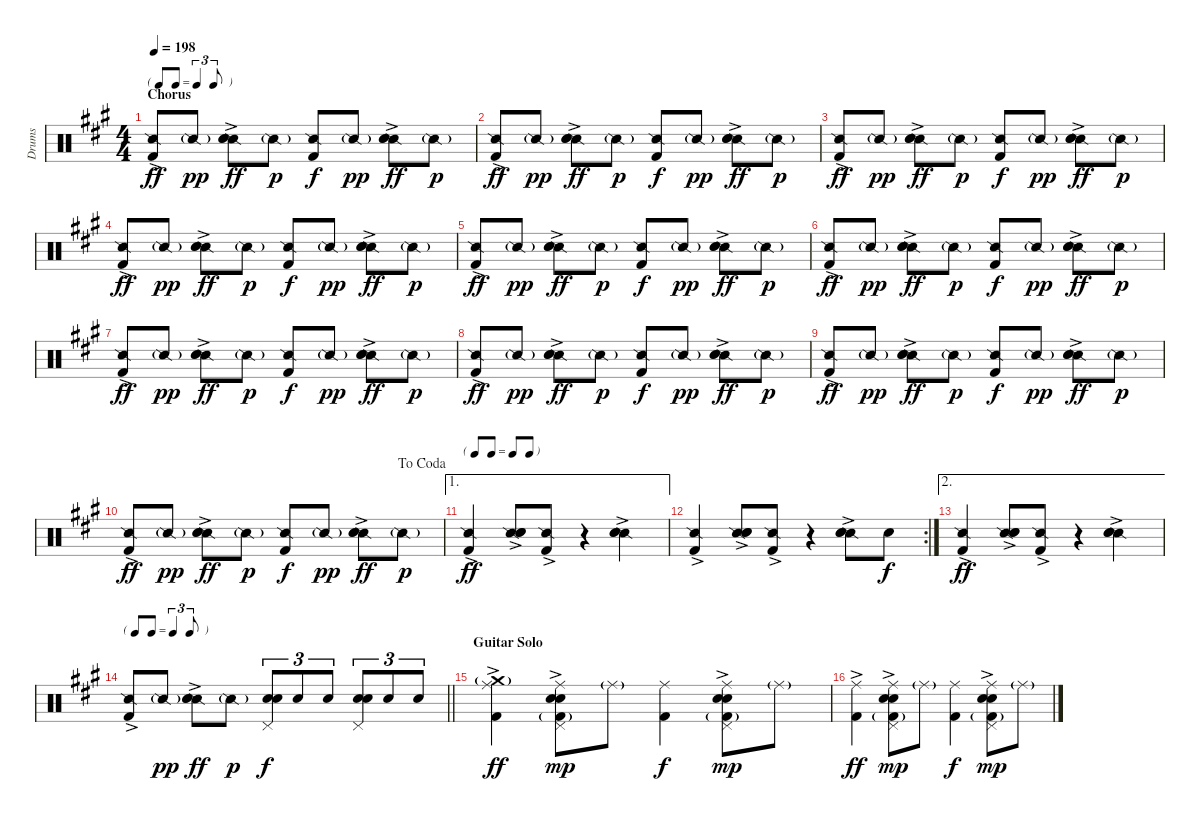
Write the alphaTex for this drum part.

\track ("Drums" "Drums") {instrument percussion}
\staff {score}
\articulation defaults
\ts (4 4)
\tf triplet8th
\section ("" "Chorus")
\tempo 198
\clef neutral
\ks a
("Snare (side stick) 2" "Kick (hit) 2"{ac}).8{dy ff} "Snare (side stick) 2"{g}.8{dy pp} ("Snare (side stick) 2" "Electric Snare (hit)"{ac} "Snare (hit) 2").8{dy ff} "Snare (side stick) 2"{g}.8{dy p} ("Snare (side stick) 2" "Kick (hit) 2").8{dy f} "Snare (side stick) 2"{g}.8{dy pp} ("Snare (side stick) 2" "Electric Snare (hit)"{ac} "Snare (hit) 2").8{dy ff} "Snare (side stick) 2"{g}.8{dy p} |
("Snare (side stick) 2" "Kick (hit) 2"{ac}).8{dy ff} "Snare (side stick) 2"{g}.8{dy pp} ("Snare (side stick) 2" "Electric Snare (hit)"{ac} "Snare (hit) 2").8{dy ff} "Snare (side stick) 2"{g}.8{dy p} ("Snare (side stick) 2" "Kick (hit) 2").8{dy f} "Snare (side stick) 2"{g}.8{dy pp} ("Snare (side stick) 2" "Electric Snare (hit)"{ac} "Snare (hit) 2").8{dy ff} "Snare (side stick) 2"{g}.8{dy p} |
("Snare (side stick) 2" "Kick (hit) 2"{ac}).8{dy ff} "Snare (side stick) 2"{g}.8{dy pp} ("Snare (side stick) 2" "Electric Snare (hit)"{ac} "Snare (hit) 2").8{dy ff} "Snare (side stick) 2"{g}.8{dy p} ("Snare (side stick) 2" "Kick (hit) 2").8{dy f} "Snare (side stick) 2"{g}.8{dy pp} ("Snare (side stick) 2" "Electric Snare (hit)"{ac} "Snare (hit) 2").8{dy ff} "Snare (side stick) 2"{g}.8{dy p} |
("Snare (side stick) 2" "Kick (hit) 2"{ac}).8{dy ff} "Snare (side stick) 2"{g}.8{dy pp} ("Snare (side stick) 2" "Electric Snare (hit)"{ac} "Snare (hit) 2").8{dy ff} "Snare (side stick) 2"{g}.8{dy p} ("Snare (side stick) 2" "Kick (hit) 2").8{dy f} "Snare (side stick) 2"{g}.8{dy pp} ("Snare (side stick) 2" "Electric Snare (hit)"{ac} "Snare (hit) 2").8{dy ff} "Snare (side stick) 2"{g}.8{dy p} |
("Snare (side stick) 2" "Kick (hit) 2"{ac}).8{dy ff} "Snare (side stick) 2"{g}.8{dy pp} ("Snare (side stick) 2" "Electric Snare (hit)"{ac} "Snare (hit) 2").8{dy ff} "Snare (side stick) 2"{g}.8{dy p} ("Snare (side stick) 2" "Kick (hit) 2").8{dy f} "Snare (side stick) 2"{g}.8{dy pp} ("Snare (side stick) 2" "Electric Snare (hit)"{ac} "Snare (hit) 2").8{dy ff} "Snare (side stick) 2"{g}.8{dy p} |
("Snare (side stick) 2" "Kick (hit) 2"{ac}).8{dy ff} "Snare (side stick) 2"{g}.8{dy pp} ("Snare (side stick) 2" "Electric Snare (hit)"{ac} "Snare (hit) 2").8{dy ff} "Snare (side stick) 2"{g}.8{dy p} ("Snare (side stick) 2" "Kick (hit) 2").8{dy f} "Snare (side stick) 2"{g}.8{dy pp} ("Snare (side stick) 2" "Electric Snare (hit)"{ac} "Snare (hit) 2").8{dy ff} "Snare (side stick) 2"{g}.8{dy p} |
("Snare (side stick) 2" "Kick (hit) 2"{ac}).8{dy ff} "Snare (side stick) 2"{g}.8{dy pp} ("Snare (side stick) 2" "Electric Snare (hit)"{ac} "Snare (hit) 2").8{dy ff} "Snare (side stick) 2"{g}.8{dy p} ("Snare (side stick) 2" "Kick (hit) 2").8{dy f} "Snare (side stick) 2"{g}.8{dy pp} ("Snare (side stick) 2" "Electric Snare (hit)"{ac} "Snare (hit) 2").8{dy ff} "Snare (side stick) 2"{g}.8{dy p} |
("Snare (side stick) 2" "Kick (hit) 2"{ac}).8{dy ff} "Snare (side stick) 2"{g}.8{dy pp} ("Snare (side stick) 2" "Electric Snare (hit)"{ac} "Snare (hit) 2").8{dy ff} "Snare (side stick) 2"{g}.8{dy p} ("Snare (side stick) 2" "Kick (hit) 2").8{dy f} "Snare (side stick) 2"{g}.8{dy pp} ("Snare (side stick) 2" "Electric Snare (hit)"{ac} "Snare (hit) 2").8{dy ff} "Snare (side stick) 2"{g}.8{dy p} |
("Snare (side stick) 2" "Kick (hit) 2"{ac}).8{dy ff} "Snare (side stick) 2"{g}.8{dy pp} ("Snare (side stick) 2" "Electric Snare (hit)"{ac} "Snare (hit) 2").8{dy ff} "Snare (side stick) 2"{g}.8{dy p} ("Snare (side stick) 2" "Kick (hit) 2").8{dy f} "Snare (side stick) 2"{g}.8{dy pp} ("Snare (side stick) 2" "Electric Snare (hit)"{ac} "Snare (hit) 2").8{dy ff} "Snare (side stick) 2"{g}.8{dy p} |
\jump dacoda
("Snare (side stick) 2" "Kick (hit) 2"{ac}).8{dy ff} "Snare (side stick) 2"{g}.8{dy pp} ("Snare (side stick) 2" "Electric Snare (hit)"{ac} "Snare (hit) 2").8{dy ff} "Snare (side stick) 2"{g}.8{dy p} ("Snare (side stick) 2" "Kick (hit) 2").8{dy f} "Snare (side stick) 2"{g}.8{dy pp} ("Snare (side stick) 2" "Electric Snare (hit)"{ac} "Snare (hit) 2").8{dy ff} "Snare (side stick) 2"{g}.8{dy p} |
\ae 1
\tf none
("Snare (side stick) 2" "Kick (hit) 2"{ac}).4{dy ff} ("Snare (side stick) 2" "Electric Snare (hit)"{ac} "Snare (hit) 2").8 ("Snare (side stick) 2" "Kick (hit) 2"{ac}).8 r.4 ("Snare (side stick) 2" "Electric Snare (hit)"{ac} "Snare (hit) 2").4 |
\rc 2
("Snare (side stick) 2" "Kick (hit) 2"{ac}).4 ("Snare (side stick) 2" "Electric Snare (hit)"{ac} "Snare (hit) 2").8 ("Snare (side stick) 2" "Kick (hit) 2"{ac}).8 r.4 ("Snare (side stick) 2" "Electric Snare (hit)"{ac} "Snare (hit) 2").8 "Snare (hit) 2".8{dy f} |
\ae 2
("Snare (side stick) 2" "Kick (hit) 2"{ac}).4{dy ff} ("Snare (side stick) 2" "Electric Snare (hit)"{ac} "Snare (hit) 2").8 ("Snare (side stick) 2" "Kick (hit) 2"{ac}).8 r.4 ("Snare (side stick) 2" "Electric Snare (hit)"{ac} "Snare (hit) 2").4 |
\tf triplet8th
\barLineRight lightlight
("Snare (side stick) 2" "Kick (hit) 2"{ac}).8 "Snare (side stick) 2"{g}.8{dy pp} ("Snare (side stick) 2" "Electric Snare (hit)"{ac} "Snare (hit) 2").8{dy ff} "Snare (side stick) 2"{g}.8{dy p} ("Pedal Hi-Hat (hit)" "Electric Snare (hit)" "Snare (hit) 2").8{tu (3 2) dy f} "Snare (hit) 2".8{tu (3 2)} "Snare (hit) 2".8{tu (3 2)} ("Pedal Hi-Hat (hit)" "Electric Snare (hit)" "Snare (hit) 2").8{tu (3 2)} "Snare (hit) 2".8{tu (3 2)} "Snare (hit) 2".8{tu (3 2)} |
\section ("" "Guitar Solo")
("Ride (middle)" "Crash medium (hit)"{g} "Kick (hit) 2"{ac}).4{dy ff} ("Ride (middle)" "Pedal Hi-Hat (hit)" "Electric Snare (hit)"{ac} "Snare (hit) 2" "Kick (hit) 2"{g}).8{dy mp} "Ride (middle)"{g}.8 ("Ride (middle)" "Kick (hit) 2").4{dy f} ("Ride (middle)" "Pedal Hi-Hat (hit)" "Electric Snare (hit)"{ac} "Snare (hit) 2" "Kick (hit) 2"{g}).8{dy mp} "Ride (middle)"{g}.8 |
("Ride (middle)" "Kick (hit) 2"{ac}).4{dy ff} ("Ride (middle)" "Pedal Hi-Hat (hit)" "Electric Snare (hit)"{ac} "Snare (hit) 2" "Kick (hit) 2"{g}).8{dy mp} "Ride (middle)"{g}.8 ("Ride (middle)" "Kick (hit) 2").4{dy f} ("Ride (middle)" "Pedal Hi-Hat (hit)" "Electric Snare (hit)"{ac} "Snare (hit) 2" "Kick (hit) 2"{g}).8{dy mp} "Ride (middle)"{g}.8
